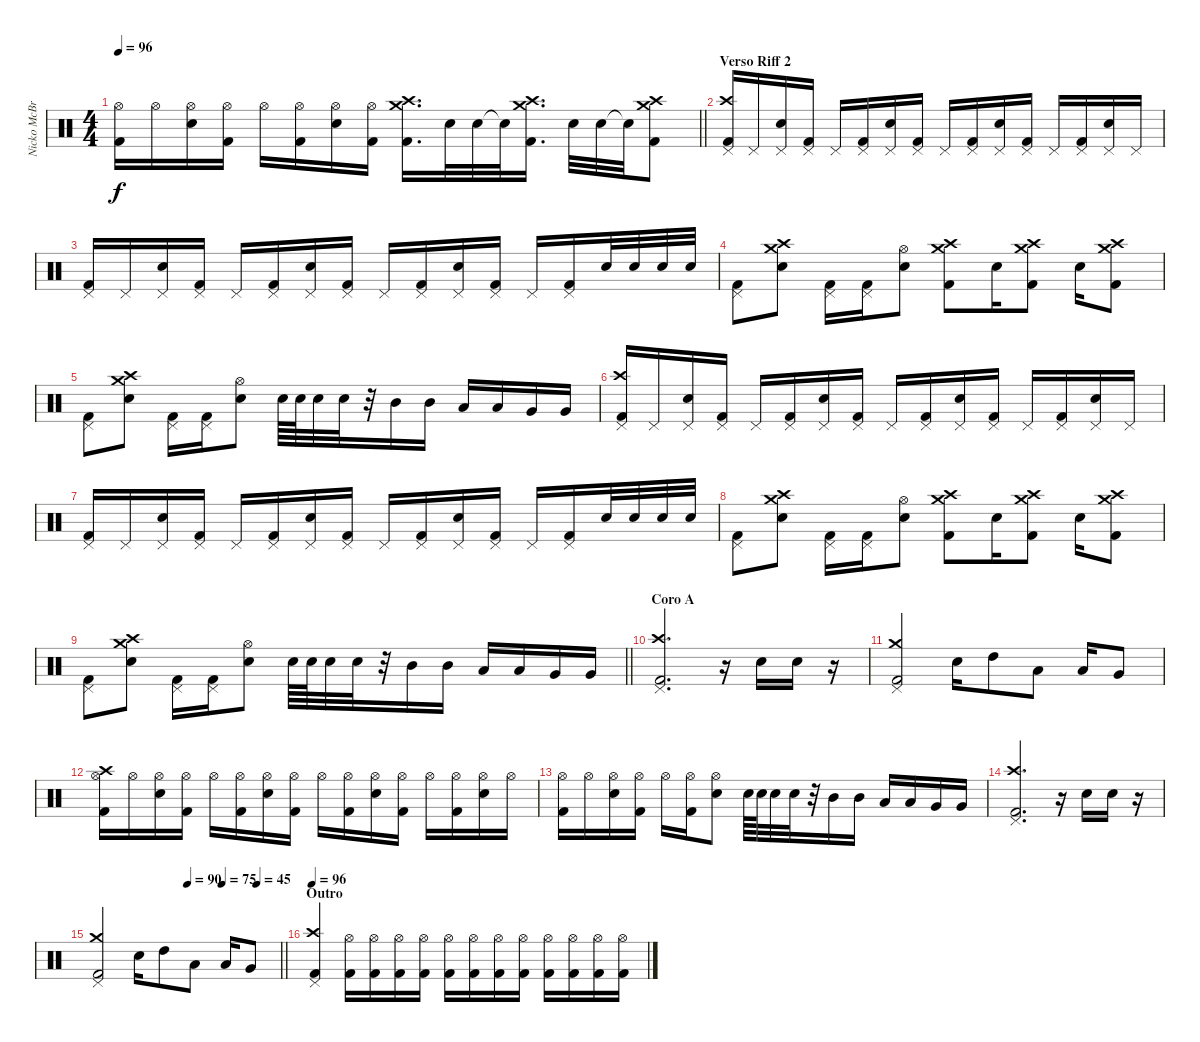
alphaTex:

\track ("Nicko McBrain" "Nicko McBr") {instrument percussion}
\staff {score}
\articulation defaults
\ts (4 4)
\tempo 96
\clef neutral
\barLineRight lightlight
\ks c
("Kick (hit) 2" "Hi-Hat (open)").16{dy f} "Hi-Hat (open)".16 ("Snare (hit) 2" "Hi-Hat (open)").16 ("Kick (hit) 2" "Hi-Hat (open)").16 "Hi-Hat (open)".16 ("Kick (hit) 2" "Hi-Hat (open)").16 ("Snare (hit) 2" "Hi-Hat (open)").16 ("Kick (hit) 2" "Hi-Hat (open)").16 ("Crash medium (hit)" "Crash high (hit)" "Kick (hit) 2").16{d} "Snare (hit) 2".32 "Snare (hit) 2".32 "Snare (hit) 2"{t}.32 ("Crash medium (hit)" "Crash high (hit)" "Kick (hit) 2").16{d} "Snare (hit) 2".32 "Snare (hit) 2".32 "Snare (hit) 2"{t}.32 ("Crash medium (hit)" "Crash high (hit)" "Kick (hit) 2").8 |
\section ("" "Verso Riff 2")
("Kick (hit) 2" "Pedal Hi-Hat (hit)" "Crash high (hit)").16 "Pedal Hi-Hat (hit)".16 ("Snare (hit) 2" "Pedal Hi-Hat (hit)").16 ("Kick (hit) 2" "Pedal Hi-Hat (hit)").16 "Pedal Hi-Hat (hit)".16 ("Kick (hit) 2" "Pedal Hi-Hat (hit)").16 ("Snare (hit) 2" "Pedal Hi-Hat (hit)").16 ("Kick (hit) 2" "Pedal Hi-Hat (hit)").16 "Pedal Hi-Hat (hit)".16 ("Kick (hit) 2" "Pedal Hi-Hat (hit)").16 ("Snare (hit) 2" "Pedal Hi-Hat (hit)").16 ("Kick (hit) 2" "Pedal Hi-Hat (hit)").16 "Pedal Hi-Hat (hit)".16 ("Kick (hit) 2" "Pedal Hi-Hat (hit)").16 ("Snare (hit) 2" "Pedal Hi-Hat (hit)").16 "Pedal Hi-Hat (hit)".16 |
("Kick (hit) 2" "Pedal Hi-Hat (hit)").16 "Pedal Hi-Hat (hit)".16 ("Snare (hit) 2" "Pedal Hi-Hat (hit)").16 ("Kick (hit) 2" "Pedal Hi-Hat (hit)").16 "Pedal Hi-Hat (hit)".16 ("Kick (hit) 2" "Pedal Hi-Hat (hit)").16 ("Snare (hit) 2" "Pedal Hi-Hat (hit)").16 ("Kick (hit) 2" "Pedal Hi-Hat (hit)").16 "Pedal Hi-Hat (hit)".16 ("Kick (hit) 2" "Pedal Hi-Hat (hit)").16 ("Snare (hit) 2" "Pedal Hi-Hat (hit)").16 ("Kick (hit) 2" "Pedal Hi-Hat (hit)").16 "Pedal Hi-Hat (hit)".16 ("Kick (hit) 2" "Pedal Hi-Hat (hit)").16 "Snare (hit) 2".32 "Snare (hit) 2".32 "Snare (hit) 2".32 "Snare (hit) 2".32 |
("Pedal Hi-Hat (hit)" "Kick (hit) 2").8 ("Snare (hit) 2" "Crash medium (hit)" "Crash high (hit)").8 ("Kick (hit) 2" "Pedal Hi-Hat (hit)").16 ("Kick (hit) 2" "Pedal Hi-Hat (hit)").16 ("Snare (hit) 2" "Hi-Hat (open)").8 ("Crash medium (hit)" "Crash high (hit)" "Kick (hit) 2").8 "Snare (hit) 2".16 ("Crash medium (hit)" "Crash high (hit)" "Kick (hit) 2").8 "Snare (hit) 2".16 ("Crash medium (hit)" "Crash high (hit)" "Kick (hit) 2").8 |
("Kick (hit) 2" "Pedal Hi-Hat (hit)").8 ("Snare (hit) 2" "Crash medium (hit)" "Crash high (hit)").8 ("Kick (hit) 2" "Pedal Hi-Hat (hit)").16 ("Kick (hit) 2" "Pedal Hi-Hat (hit)").16 ("Snare (hit) 2" "Hi-Hat (open)").8 "Snare (hit) 2".64 "Snare (hit) 2".64 "Snare (hit) 2".32 "Snare (hit) 2".32 r.32 "Mid Tom (hit)".16 "Mid Tom (hit)".16 "Low Tom (hit)".16 "Low Tom (hit)".16 "Very Low Tom (hit)".16 "Very Low Tom (hit)".16 |
("Kick (hit) 2" "Pedal Hi-Hat (hit)" "Crash high (hit)").16 "Pedal Hi-Hat (hit)".16 ("Snare (hit) 2" "Pedal Hi-Hat (hit)").16 ("Kick (hit) 2" "Pedal Hi-Hat (hit)").16 "Pedal Hi-Hat (hit)".16 ("Kick (hit) 2" "Pedal Hi-Hat (hit)").16 ("Snare (hit) 2" "Pedal Hi-Hat (hit)").16 ("Kick (hit) 2" "Pedal Hi-Hat (hit)").16 "Pedal Hi-Hat (hit)".16 ("Kick (hit) 2" "Pedal Hi-Hat (hit)").16 ("Snare (hit) 2" "Pedal Hi-Hat (hit)").16 ("Kick (hit) 2" "Pedal Hi-Hat (hit)").16 "Pedal Hi-Hat (hit)".16 ("Kick (hit) 2" "Pedal Hi-Hat (hit)").16 ("Snare (hit) 2" "Pedal Hi-Hat (hit)").16 "Pedal Hi-Hat (hit)".16 |
("Kick (hit) 2" "Pedal Hi-Hat (hit)").16 "Pedal Hi-Hat (hit)".16 ("Snare (hit) 2" "Pedal Hi-Hat (hit)").16 ("Kick (hit) 2" "Pedal Hi-Hat (hit)").16 "Pedal Hi-Hat (hit)".16 ("Kick (hit) 2" "Pedal Hi-Hat (hit)").16 ("Snare (hit) 2" "Pedal Hi-Hat (hit)").16 ("Kick (hit) 2" "Pedal Hi-Hat (hit)").16 "Pedal Hi-Hat (hit)".16 ("Kick (hit) 2" "Pedal Hi-Hat (hit)").16 ("Snare (hit) 2" "Pedal Hi-Hat (hit)").16 ("Kick (hit) 2" "Pedal Hi-Hat (hit)").16 "Pedal Hi-Hat (hit)".16 ("Kick (hit) 2" "Pedal Hi-Hat (hit)").16 "Snare (hit) 2".32 "Snare (hit) 2".32 "Snare (hit) 2".32 "Snare (hit) 2".32 |
("Pedal Hi-Hat (hit)" "Kick (hit) 2").8 ("Snare (hit) 2" "Crash medium (hit)" "Crash high (hit)").8 ("Kick (hit) 2" "Pedal Hi-Hat (hit)").16 ("Kick (hit) 2" "Pedal Hi-Hat (hit)").16 ("Snare (hit) 2" "Hi-Hat (open)").8 ("Crash medium (hit)" "Crash high (hit)" "Kick (hit) 2").8 "Snare (hit) 2".16 ("Crash medium (hit)" "Crash high (hit)" "Kick (hit) 2").8 "Snare (hit) 2".16 ("Crash medium (hit)" "Crash high (hit)" "Kick (hit) 2").8 |
\barLineRight lightlight
("Kick (hit) 2" "Pedal Hi-Hat (hit)").8 ("Snare (hit) 2" "Crash medium (hit)" "Crash high (hit)").8 ("Kick (hit) 2" "Pedal Hi-Hat (hit)").16 ("Kick (hit) 2" "Pedal Hi-Hat (hit)").16 ("Snare (hit) 2" "Hi-Hat (open)").8 "Snare (hit) 2".64 "Snare (hit) 2".64 "Snare (hit) 2".32 "Snare (hit) 2".32 r.32 "Mid Tom (hit)".16 "Mid Tom (hit)".16 "Low Tom (hit)".16 "Low Tom (hit)".16 "Very Low Tom (hit)".16 "Very Low Tom (hit)".16 |
\section ("" "Coro A")
("Kick (hit) 2" "Pedal Hi-Hat (hit)" "Crash high (hit)").2{d} r.16 "Snare (hit) 2".16 "Snare (hit) 2".16 r.16 |
("Kick (hit) 2" "Pedal Hi-Hat (hit)" "Crash medium (hit)").2 "Snare (hit) 2".16 "High Tom (hit)".8 "Low Tom (hit)".8 "Low Tom (hit)".16 "Very Low Tom (hit)".8 |
("Kick (hit) 2" "Hi-Hat (open)" "Crash high (hit)").16 "Hi-Hat (open)".16 ("Snare (hit) 2" "Hi-Hat (open)").16 ("Kick (hit) 2" "Hi-Hat (open)").16 "Hi-Hat (open)".16 ("Kick (hit) 2" "Hi-Hat (open)").16 ("Snare (hit) 2" "Hi-Hat (open)").16 ("Kick (hit) 2" "Hi-Hat (open)").16 "Hi-Hat (open)".16 ("Kick (hit) 2" "Hi-Hat (open)").16 ("Snare (hit) 2" "Hi-Hat (open)").16 ("Kick (hit) 2" "Hi-Hat (open)").16 "Hi-Hat (open)".16 ("Kick (hit) 2" "Hi-Hat (open)").16 ("Snare (hit) 2" "Hi-Hat (open)").16 "Hi-Hat (open)".16 |
("Kick (hit) 2" "Hi-Hat (open)").16 "Hi-Hat (open)".16 ("Snare (hit) 2" "Hi-Hat (open)").16 ("Kick (hit) 2" "Hi-Hat (open)").16 "Hi-Hat (open)".16 ("Kick (hit) 2" "Hi-Hat (open)").16 ("Snare (hit) 2" "Hi-Hat (open)").8 "Snare (hit) 2".64 "Snare (hit) 2".64 "Snare (hit) 2".32 "Snare (hit) 2".32 r.32 "Mid Tom (hit)".16 "Mid Tom (hit)".16 "Low Tom (hit)".16 "Low Tom (hit)".16 "Very Low Tom (hit)".16 "Very Low Tom (hit)".16 |
("Kick (hit) 2" "Pedal Hi-Hat (hit)" "Crash high (hit)").2{d} r.16 "Snare (hit) 2".16 "Snare (hit) 2".16 r.16 |
\tempo (90 0.5)
\tempo (75 0.6875)
\tempo (45 0.875)
\barLineRight lightlight
("Kick (hit) 2" "Pedal Hi-Hat (hit)" "Crash medium (hit)").2 "Snare (hit) 2".16 "High Tom (hit)".8 "Low Tom (hit)".8 "Low Tom (hit)".16 "Very Low Tom (hit)".8 |
\section ("" "Outro")
\tempo 96
("Kick (hit) 2" "Pedal Hi-Hat (hit)" "Crash high (hit)").4 ("Kick (hit) 2" "Hi-Hat (open)").16 ("Kick (hit) 2" "Hi-Hat (open)").16 ("Kick (hit) 2" "Hi-Hat (open)").16 ("Kick (hit) 2" "Hi-Hat (open)").16 ("Kick (hit) 2" "Hi-Hat (open)").16 ("Kick (hit) 2" "Hi-Hat (open)").16 ("Kick (hit) 2" "Hi-Hat (open)").16 ("Kick (hit) 2" "Hi-Hat (open)").16 ("Kick (hit) 2" "Hi-Hat (open)").16 ("Kick (hit) 2" "Hi-Hat (open)").16 ("Kick (hit) 2" "Hi-Hat (open)").16 ("Kick (hit) 2" "Hi-Hat (open)").16
